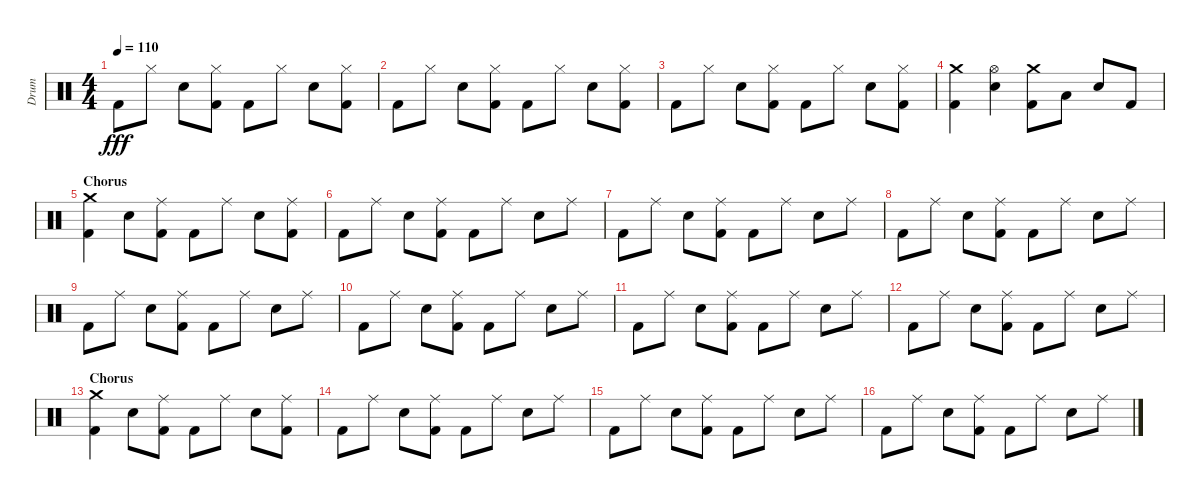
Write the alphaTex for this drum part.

\track ("Drum" "Drum") {instrument percussion}
\staff {score}
\articulation defaults
\ts (4 4)
\tempo 110
\clef neutral
\ks c "Kick (hit) 2".8{dy fff} "Hi-Hat (closed)".8 "Electric Snare (hit)".8
("Hi-Hat (closed)" "Kick (hit) 2").8 "Kick (hit) 2".8 "Hi-Hat (closed)".8 "Electric Snare (hit)".8 ("Hi-Hat (closed)" "Kick (hit) 2").8 |
"Kick (hit) 2".8 "Hi-Hat (closed)".8 "Electric Snare (hit)".8 ("Hi-Hat (closed)" "Kick (hit) 2").8 "Kick (hit) 2".8 "Hi-Hat (closed)".8 "Electric Snare (hit)".8 ("Hi-Hat (closed)" "Kick (hit) 2").8 |
"Kick (hit) 2".8 "Hi-Hat (closed)".8 "Electric Snare (hit)".8 ("Hi-Hat (closed)" "Kick (hit) 2").8 "Kick (hit) 2".8 "Hi-Hat (closed)".8 "Electric Snare (hit)".8 ("Hi-Hat (closed)" "Kick (hit) 2").8 |
("Crash medium (hit)" "Kick (hit) 2").4 ("Hi-Hat (open)" "Electric Snare (hit)").4 ("Crash medium (hit)" "Kick (hit) 2").8 "Low Tom (hit)".8 "Electric Snare (hit)".8 "Kick (hit) 2".8 |
\section ("" "Chorus")
("Crash medium (hit)" "Kick (hit) 2").4 "Electric Snare (hit)".8 ("Ride (middle)" "Kick (hit) 2").8 "Kick (hit) 2".8 "Ride (middle)".8 "Electric Snare (hit)".8 ("Ride (middle)" "Kick (hit) 2").8 |
"Kick (hit) 2".8 "Ride (middle)".8 "Electric Snare (hit)".8 ("Ride (middle)" "Kick (hit) 2").8 "Kick (hit) 2".8 "Ride (middle)".8 "Electric Snare (hit)".8 "Ride (middle)".8 |
"Kick (hit) 2".8 "Ride (middle)".8 "Electric Snare (hit)".8 ("Ride (middle)" "Kick (hit) 2").8 "Kick (hit) 2".8 "Ride (middle)".8 "Electric Snare (hit)".8 "Ride (middle)".8 |
"Kick (hit) 2".8 "Ride (middle)".8 "Electric Snare (hit)".8 ("Ride (middle)" "Kick (hit) 2").8 "Kick (hit) 2".8 "Ride (middle)".8 "Electric Snare (hit)".8 "Ride (middle)".8 |
"Kick (hit) 2".8 "Ride (middle)".8 "Electric Snare (hit)".8 ("Ride (middle)" "Kick (hit) 2").8 "Kick (hit) 2".8 "Ride (middle)".8 "Electric Snare (hit)".8 "Ride (middle)".8 |
"Kick (hit) 2".8 "Ride (middle)".8 "Electric Snare (hit)".8 ("Ride (middle)" "Kick (hit) 2").8 "Kick (hit) 2".8 "Ride (middle)".8 "Electric Snare (hit)".8 "Ride (middle)".8 |
"Kick (hit) 2".8 "Ride (middle)".8 "Electric Snare (hit)".8 ("Ride (middle)" "Kick (hit) 2").8 "Kick (hit) 2".8 "Ride (middle)".8 "Electric Snare (hit)".8 "Ride (middle)".8 |
"Kick (hit) 2".8 "Ride (middle)".8 "Electric Snare (hit)".8 ("Ride (middle)" "Kick (hit) 2").8 "Kick (hit) 2".8 "Ride (middle)".8 "Electric Snare (hit)".8 "Ride (middle)".8 |
\section ("" "Chorus")
("Crash medium (hit)" "Kick (hit) 2").4 "Electric Snare (hit)".8 ("Ride (middle)" "Kick (hit) 2").8 "Kick (hit) 2".8 "Ride (middle)".8 "Electric Snare (hit)".8 ("Ride (middle)" "Kick (hit) 2").8 |
"Kick (hit) 2".8 "Ride (middle)".8 "Electric Snare (hit)".8 ("Ride (middle)" "Kick (hit) 2").8 "Kick (hit) 2".8 "Ride (middle)".8 "Electric Snare (hit)".8 "Ride (middle)".8 |
"Kick (hit) 2".8 "Ride (middle)".8 "Electric Snare (hit)".8 ("Ride (middle)" "Kick (hit) 2").8 "Kick (hit) 2".8 "Ride (middle)".8 "Electric Snare (hit)".8 "Ride (middle)".8 |
"Kick (hit) 2".8 "Ride (middle)".8 "Electric Snare (hit)".8 ("Ride (middle)" "Kick (hit) 2").8 "Kick (hit) 2".8 "Ride (middle)".8 "Electric Snare (hit)".8 "Ride (middle)".8
